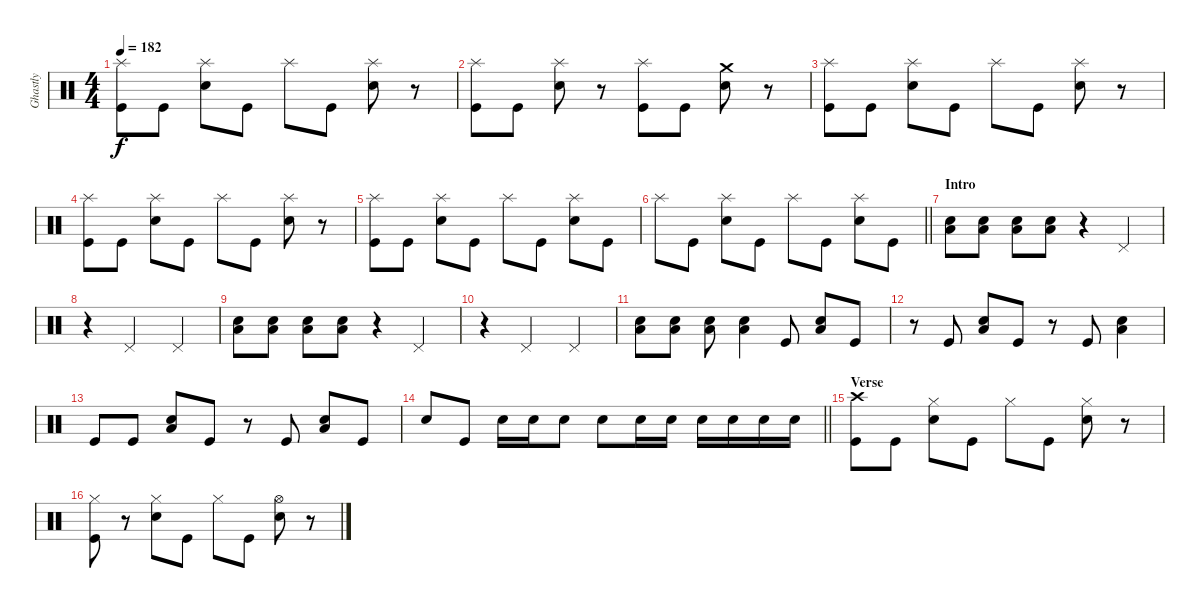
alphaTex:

\track ("Ghastly" "Ghastly") {instrument percussion}
\staff {score}
\articulation defaults
\ts (4 4)
\tempo 182
\clef neutral
\ks c
("Splash (hit)" "Kick (hit)").8{dy f} "Kick (hit)".8 ("Splash (hit)" "Electric Snare (hit)").8 "Kick (hit)".8 "Splash (hit)".8 "Kick (hit)".8 ("Splash (hit)" "Electric Snare (hit)").8 r.8 |
("Splash (hit)" "Kick (hit)").8 "Kick (hit)".8 ("Splash (hit)" "Electric Snare (hit)").8 r.8 ("Splash (hit)" "Kick (hit)").8 "Kick (hit)".8 ("Crash medium (hit)" "Electric Snare (hit)").8 r.8 |
("Splash (hit)" "Kick (hit)").8 "Kick (hit)".8 ("Splash (hit)" "Electric Snare (hit)").8 "Kick (hit)".8 "Splash (hit)".8 "Kick (hit)".8 ("Splash (hit)" "Electric Snare (hit)").8 r.8 |
("Splash (hit)" "Kick (hit)").8 "Kick (hit)".8 ("Splash (hit)" "Electric Snare (hit)").8 "Kick (hit)".8 "Splash (hit)".8 "Kick (hit)".8 ("Splash (hit)" "Electric Snare (hit)").8 r.8 |
("Splash (hit)" "Kick (hit)").8 "Kick (hit)".8 ("Splash (hit)" "Electric Snare (hit)").8 "Kick (hit)".8 "Splash (hit)".8 "Kick (hit)".8 ("Splash (hit)" "Electric Snare (hit)").8 "Kick (hit)".8 |
\barLineRight lightlight "Splash (hit)".8 "Kick (hit)".8
("Splash (hit)" "Electric Snare (hit)").8 "Kick (hit)".8 "Splash (hit)".8 "Kick (hit)".8 ("Splash (hit)" "Electric Snare (hit)").8 "Kick (hit)".8 |
\section ("" "Intro")
("Low Tom (hit)" "Electric Snare (hit)").8 ("Low Tom (hit)" "Electric Snare (hit)").8 ("Low Tom (hit)" "Electric Snare (hit)").8 ("Low Tom (hit)" "Electric Snare (hit)").8 r.4 "Pedal Hi-Hat (hit)".4 |
r.4 "Pedal Hi-Hat (hit)".2 "Pedal Hi-Hat (hit)".4 |
("Low Tom (hit)" "Electric Snare (hit)").8 ("Low Tom (hit)" "Electric Snare (hit)").8 ("Low Tom (hit)" "Electric Snare (hit)").8 ("Low Tom (hit)" "Electric Snare (hit)").8 r.4 "Pedal Hi-Hat (hit)".4 |
r.4 "Pedal Hi-Hat (hit)".2 "Pedal Hi-Hat (hit)".4 |
("Low Tom (hit)" "Electric Snare (hit)").8 ("Low Tom (hit)" "Electric Snare (hit)").8 ("Low Tom (hit)" "Electric Snare (hit)").8 ("Low Tom (hit)" "Electric Snare (hit)").4 "Kick (hit)".8 ("Low Tom (hit)" "Electric Snare (hit)").8 "Kick (hit)".8 |
r.8 "Kick (hit)".8 ("Low Tom (hit)" "Electric Snare (hit)").8 "Kick (hit)".8 r.8 "Kick (hit)".8 ("Low Tom (hit)" "Electric Snare (hit)").4 |
"Kick (hit)".8 "Kick (hit)".8 ("Low Tom (hit)" "Electric Snare (hit)").8 "Kick (hit)".8 r.8 "Kick (hit)".8 ("Low Tom (hit)" "Electric Snare (hit)").8 "Kick (hit)".8 |
\barLineRight lightlight "Electric Snare (hit)".8 "Kick (hit)".8 "Electric Snare (hit)".16 "Electric Snare (hit)".16 "Electric Snare (hit)".8 "Electric Snare (hit)".8 "Electric Snare (hit)".16 "Electric Snare (hit)".16 "Electric Snare (hit)".16 "Electric Snare (hit)".16 "Electric Snare (hit)".16 "Electric Snare (hit)".16
|
\section ("" "Verse")
("Crash high (hit)" "Kick (hit)").8 "Kick (hit)".8 ("Hi-Hat (closed)" "Electric Snare (hit)").8 "Kick (hit)".8 "Hi-Hat (closed)".8 "Kick (hit)".8 ("Hi-Hat (closed)" "Electric Snare (hit)").8 r.8 |
("Hi-Hat (closed)" "Kick (hit)").8 r.8 ("Hi-Hat (closed)" "Electric Snare (hit)").8 "Kick (hit)".8 "Hi-Hat (closed)".8 "Kick (hit)".8 ("Hi-Hat (open)" "Electric Snare (hit)").8 r.8
